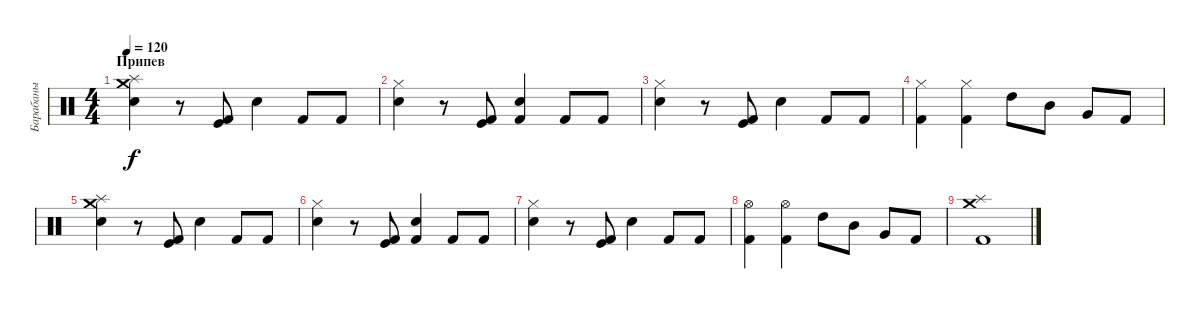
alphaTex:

\track ("Барабаны" "Барабаны") {instrument percussion}
\staff {score}
\articulation defaults
\ts (4 4)
\section ("" "Припев")
\tempo 120
\clef neutral
\ks c
("Crash medium (hit)" "Splash (hit)" "Electric Snare (hit)").4{dy f} r.8 ("Kick (hit)" "Kick (hit) 2").8 "Snare (hit) 2".4 "Kick (hit) 2".8 "Kick (hit) 2".8 |
("Hi-Hat (closed)" "Electric Snare (hit)").4 r.8 ("Kick (hit)" "Kick (hit) 2").8 ("Kick (hit) 2" "Snare (hit) 2").4 "Kick (hit) 2".8 "Kick (hit) 2".8 |
("Hi-Hat (closed)" "Electric Snare (hit)").4 r.8 ("Kick (hit)" "Kick (hit) 2").8 "Snare (hit) 2".4 "Kick (hit) 2".8 "Kick (hit) 2".8 |
("Hi-Hat (closed)" "Kick (hit) 2").4 ("Hi-Hat (closed)" "Kick (hit) 2").4 "High Tom (hit)".8 "Mid Tom (hit)".8 "Very Low Tom (hit)".8 "Kick (hit) 2".8 |
("Crash medium (hit)" "Splash (hit)" "Electric Snare (hit)").4 r.8 ("Kick (hit)" "Kick (hit) 2").8 "Snare (hit) 2".4 "Kick (hit) 2".8 "Kick (hit) 2".8 |
("Hi-Hat (closed)" "Electric Snare (hit)").4 r.8 ("Kick (hit)" "Kick (hit) 2").8 ("Kick (hit) 2" "Snare (hit) 2").4 "Kick (hit) 2".8 "Kick (hit) 2".8 |
("Hi-Hat (closed)" "Electric Snare (hit)").4 r.8 ("Kick (hit)" "Kick (hit) 2").8 "Snare (hit) 2".4 "Kick (hit) 2".8 "Kick (hit) 2".8 |
("Hi-Hat (open)" "Kick (hit) 2").4 ("Hi-Hat (open)" "Kick (hit) 2").4 "High Tom (hit)".8 "Mid Tom (hit)".8 "Very Low Tom (hit)".8 "Kick (hit) 2".8 |
("Crash medium (hit)" "Splash (hit)" "Kick (hit) 2").1
